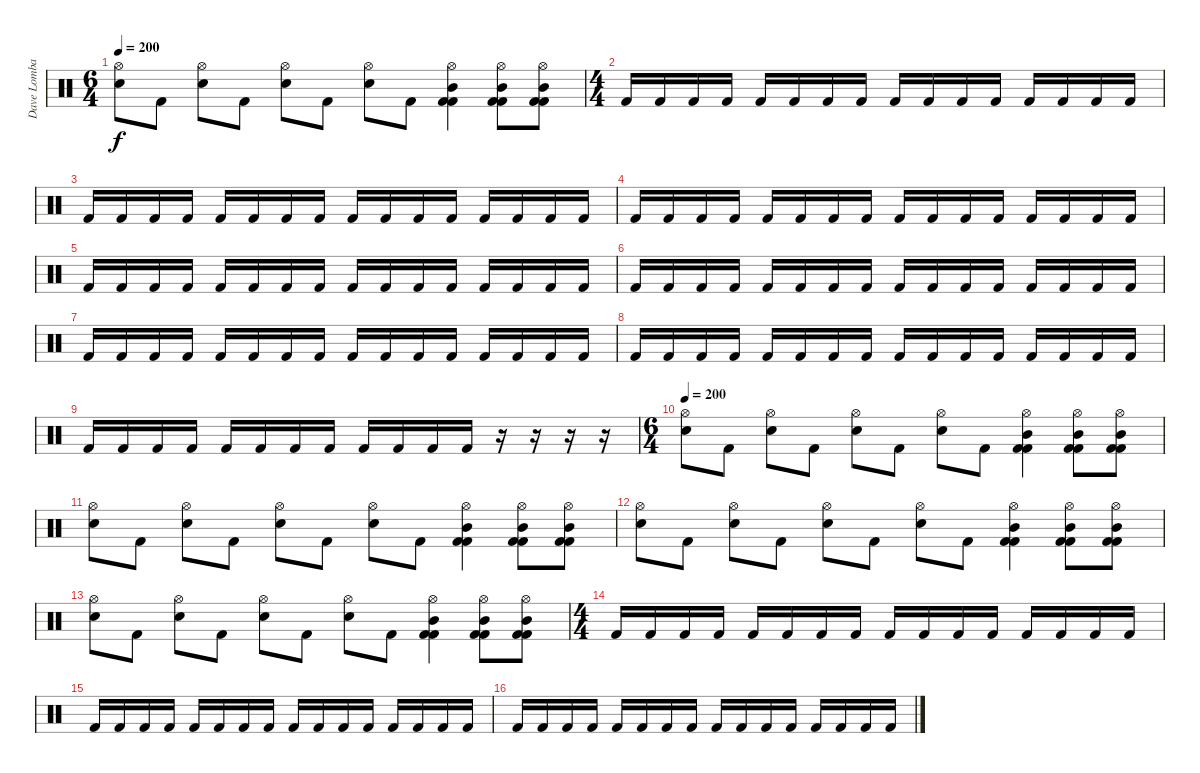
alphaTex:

\track ("Dave Lombardo:" "Dave Lomba") {instrument percussion}
\staff {score}
\articulation defaults
\ts (6 4)
\tempo 200
\clef neutral
\ks c
("Hi-Hat (open)" "Electric Snare (hit)").8{dy f} "Kick (hit) 2".8 ("Hi-Hat (open)" "Electric Snare (hit)").8 "Kick (hit) 2".8 ("Hi-Hat (open)" "Electric Snare (hit)").8 "Kick (hit) 2".8 ("Hi-Hat (open)" "Electric Snare (hit)").8 "Kick (hit) 2".8 ("Hi-Hat (open)" "Mid Tom (hit)" "Kick (hit) 2" "Kick (hit) 2").4 ("Hi-Hat (open)" "Mid Tom (hit)" "Kick (hit) 2" "Kick (hit) 2").8 ("Hi-Hat (open)" "Mid Tom (hit)" "Kick (hit) 2" "Kick (hit) 2").8 |
\ts (4 4)
"Kick (hit) 2".16 "Kick (hit) 2".16 "Kick (hit) 2".16 "Kick (hit) 2".16 "Kick (hit) 2".16 "Kick (hit) 2".16 "Kick (hit) 2".16 "Kick (hit) 2".16 "Kick (hit) 2".16 "Kick (hit) 2".16 "Kick (hit) 2".16 "Kick (hit) 2".16 "Kick (hit) 2".16 "Kick (hit) 2".16 "Kick (hit) 2".16 "Kick (hit) 2".16 |
"Kick (hit) 2".16 "Kick (hit) 2".16 "Kick (hit) 2".16 "Kick (hit) 2".16 "Kick (hit) 2".16 "Kick (hit) 2".16 "Kick (hit) 2".16 "Kick (hit) 2".16 "Kick (hit) 2".16 "Kick (hit) 2".16 "Kick (hit) 2".16 "Kick (hit) 2".16 "Kick (hit) 2".16 "Kick (hit) 2".16 "Kick (hit) 2".16 "Kick (hit) 2".16 |
"Kick (hit) 2".16 "Kick (hit) 2".16 "Kick (hit) 2".16 "Kick (hit) 2".16 "Kick (hit) 2".16 "Kick (hit) 2".16 "Kick (hit) 2".16 "Kick (hit) 2".16 "Kick (hit) 2".16 "Kick (hit) 2".16 "Kick (hit) 2".16 "Kick (hit) 2".16 "Kick (hit) 2".16 "Kick (hit) 2".16 "Kick (hit) 2".16 "Kick (hit) 2".16 |
"Kick (hit) 2".16 "Kick (hit) 2".16 "Kick (hit) 2".16 "Kick (hit) 2".16 "Kick (hit) 2".16 "Kick (hit) 2".16 "Kick (hit) 2".16 "Kick (hit) 2".16 "Kick (hit) 2".16 "Kick (hit) 2".16 "Kick (hit) 2".16 "Kick (hit) 2".16 "Kick (hit) 2".16 "Kick (hit) 2".16 "Kick (hit) 2".16 "Kick (hit) 2".16 |
"Kick (hit) 2".16 "Kick (hit) 2".16 "Kick (hit) 2".16 "Kick (hit) 2".16 "Kick (hit) 2".16 "Kick (hit) 2".16 "Kick (hit) 2".16 "Kick (hit) 2".16 "Kick (hit) 2".16 "Kick (hit) 2".16 "Kick (hit) 2".16 "Kick (hit) 2".16 "Kick (hit) 2".16 "Kick (hit) 2".16 "Kick (hit) 2".16 "Kick (hit) 2".16 |
"Kick (hit) 2".16 "Kick (hit) 2".16 "Kick (hit) 2".16 "Kick (hit) 2".16 "Kick (hit) 2".16 "Kick (hit) 2".16 "Kick (hit) 2".16 "Kick (hit) 2".16 "Kick (hit) 2".16 "Kick (hit) 2".16 "Kick (hit) 2".16 "Kick (hit) 2".16 "Kick (hit) 2".16 "Kick (hit) 2".16 "Kick (hit) 2".16 "Kick (hit) 2".16 |
"Kick (hit) 2".16 "Kick (hit) 2".16 "Kick (hit) 2".16 "Kick (hit) 2".16 "Kick (hit) 2".16 "Kick (hit) 2".16 "Kick (hit) 2".16 "Kick (hit) 2".16 "Kick (hit) 2".16 "Kick (hit) 2".16 "Kick (hit) 2".16 "Kick (hit) 2".16 "Kick (hit) 2".16 "Kick (hit) 2".16 "Kick (hit) 2".16 "Kick (hit) 2".16 |
"Kick (hit) 2".16 "Kick (hit) 2".16 "Kick (hit) 2".16 "Kick (hit) 2".16 "Kick (hit) 2".16 "Kick (hit) 2".16 "Kick (hit) 2".16 "Kick (hit) 2".16 "Kick (hit) 2".16 "Kick (hit) 2".16 "Kick (hit) 2".16 "Kick (hit) 2".16 r.16 r.16 r.16 r.16 |
\ts (6 4)
\tempo 200
("Hi-Hat (open)" "Electric Snare (hit)").8 "Kick (hit) 2".8 ("Hi-Hat (open)" "Electric Snare (hit)").8 "Kick (hit) 2".8 ("Hi-Hat (open)" "Electric Snare (hit)").8 "Kick (hit) 2".8 ("Hi-Hat (open)" "Electric Snare (hit)").8 "Kick (hit) 2".8 ("Hi-Hat (open)" "Mid Tom (hit)" "Kick (hit) 2" "Kick (hit) 2").4 ("Hi-Hat (open)" "Mid Tom (hit)" "Kick (hit) 2" "Kick (hit) 2").8 ("Hi-Hat (open)" "Mid Tom (hit)" "Kick (hit) 2" "Kick (hit) 2").8 |
("Hi-Hat (open)" "Electric Snare (hit)").8 "Kick (hit) 2".8 ("Hi-Hat (open)" "Electric Snare (hit)").8 "Kick (hit) 2".8 ("Hi-Hat (open)" "Electric Snare (hit)").8 "Kick (hit) 2".8 ("Hi-Hat (open)" "Electric Snare (hit)").8 "Kick (hit) 2".8 ("Hi-Hat (open)" "Mid Tom (hit)" "Kick (hit) 2" "Kick (hit) 2").4 ("Hi-Hat (open)" "Mid Tom (hit)" "Kick (hit) 2" "Kick (hit) 2").8 ("Hi-Hat (open)" "Mid Tom (hit)" "Kick (hit) 2" "Kick (hit) 2").8 |
("Hi-Hat (open)" "Electric Snare (hit)").8 "Kick (hit) 2".8 ("Hi-Hat (open)" "Electric Snare (hit)").8 "Kick (hit) 2".8 ("Hi-Hat (open)" "Electric Snare (hit)").8 "Kick (hit) 2".8 ("Hi-Hat (open)" "Electric Snare (hit)").8 "Kick (hit) 2".8 ("Hi-Hat (open)" "Mid Tom (hit)" "Kick (hit) 2" "Kick (hit) 2").4 ("Hi-Hat (open)" "Mid Tom (hit)" "Kick (hit) 2" "Kick (hit) 2").8 ("Hi-Hat (open)" "Mid Tom (hit)" "Kick (hit) 2" "Kick (hit) 2").8 |
("Hi-Hat (open)" "Electric Snare (hit)").8 "Kick (hit) 2".8 ("Hi-Hat (open)" "Electric Snare (hit)").8 "Kick (hit) 2".8 ("Hi-Hat (open)" "Electric Snare (hit)").8 "Kick (hit) 2".8 ("Hi-Hat (open)" "Electric Snare (hit)").8 "Kick (hit) 2".8 ("Hi-Hat (open)" "Mid Tom (hit)" "Kick (hit) 2" "Kick (hit) 2").4 ("Hi-Hat (open)" "Mid Tom (hit)" "Kick (hit) 2" "Kick (hit) 2").8 ("Hi-Hat (open)" "Mid Tom (hit)" "Kick (hit) 2" "Kick (hit) 2").8 |
\ts (4 4)
"Kick (hit) 2".16 "Kick (hit) 2".16 "Kick (hit) 2".16 "Kick (hit) 2".16 "Kick (hit) 2".16 "Kick (hit) 2".16 "Kick (hit) 2".16 "Kick (hit) 2".16 "Kick (hit) 2".16 "Kick (hit) 2".16 "Kick (hit) 2".16 "Kick (hit) 2".16 "Kick (hit) 2".16 "Kick (hit) 2".16 "Kick (hit) 2".16 "Kick (hit) 2".16 |
"Kick (hit) 2".16 "Kick (hit) 2".16 "Kick (hit) 2".16 "Kick (hit) 2".16 "Kick (hit) 2".16 "Kick (hit) 2".16 "Kick (hit) 2".16 "Kick (hit) 2".16 "Kick (hit) 2".16 "Kick (hit) 2".16 "Kick (hit) 2".16 "Kick (hit) 2".16 "Kick (hit) 2".16 "Kick (hit) 2".16 "Kick (hit) 2".16 "Kick (hit) 2".16 |
"Kick (hit) 2".16 "Kick (hit) 2".16 "Kick (hit) 2".16 "Kick (hit) 2".16 "Kick (hit) 2".16 "Kick (hit) 2".16 "Kick (hit) 2".16 "Kick (hit) 2".16 "Kick (hit) 2".16 "Kick (hit) 2".16 "Kick (hit) 2".16 "Kick (hit) 2".16 "Kick (hit) 2".16 "Kick (hit) 2".16 "Kick (hit) 2".16 "Kick (hit) 2".16
